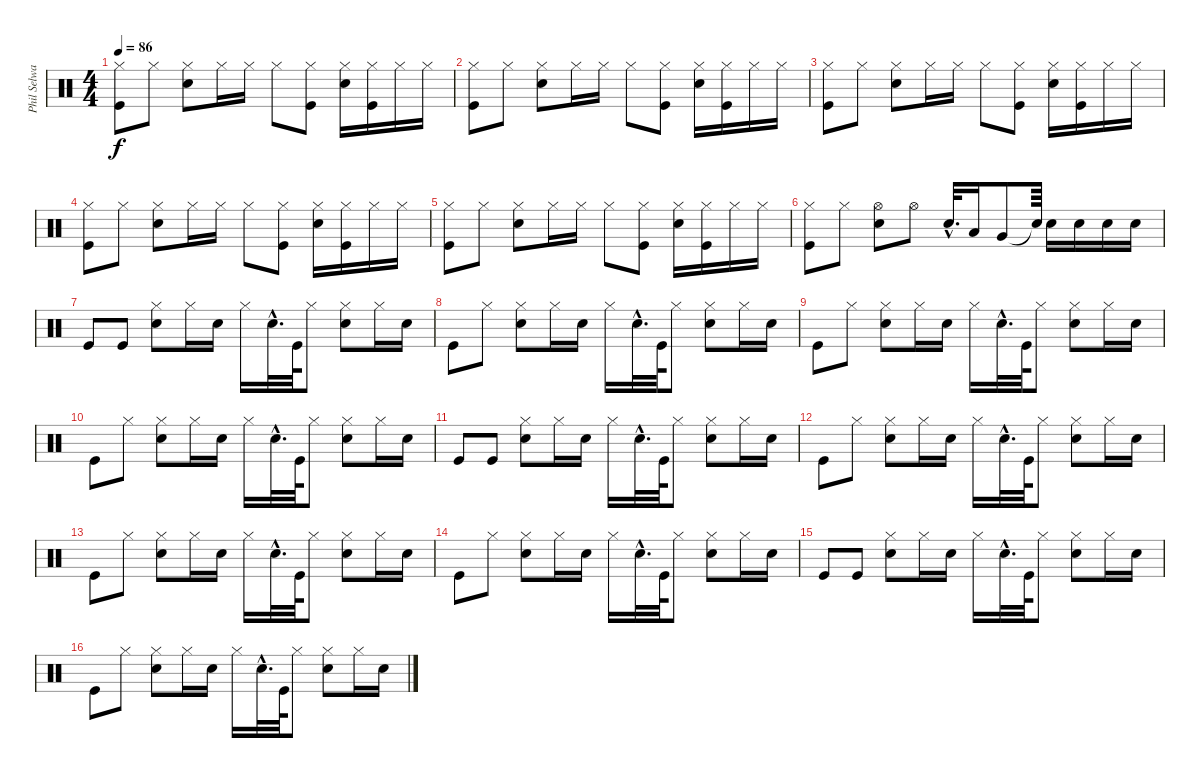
\track ("Phil Selway" "Phil Selwa") {instrument percussion}
\staff {score}
\articulation defaults
\ts (4 4)
\tempo 86
\clef neutral
\ks c
("Kick (hit)" "Hi-Hat (closed)").8{dy f} "Hi-Hat (closed)".8 ("Hi-Hat (closed)" "Electric Snare (hit)").8 "Hi-Hat (closed)".16 "Hi-Hat (closed)".16 "Hi-Hat (closed)".8 ("Kick (hit)" "Hi-Hat (closed)").8 ("Hi-Hat (closed)" "Electric Snare (hit)").16 ("Kick (hit)" "Hi-Hat (closed)").16 "Hi-Hat (closed)".16 "Hi-Hat (closed)".16 |
("Kick (hit)" "Hi-Hat (closed)").8 "Hi-Hat (closed)".8 ("Hi-Hat (closed)" "Electric Snare (hit)").8 "Hi-Hat (closed)".16 "Hi-Hat (closed)".16 "Hi-Hat (closed)".8 ("Kick (hit)" "Hi-Hat (closed)").8 ("Hi-Hat (closed)" "Electric Snare (hit)").16 ("Kick (hit)" "Hi-Hat (closed)").16 "Hi-Hat (closed)".16 "Hi-Hat (closed)".16 |
("Kick (hit)" "Hi-Hat (closed)").8 "Hi-Hat (closed)".8 ("Hi-Hat (closed)" "Electric Snare (hit)").8 "Hi-Hat (closed)".16 "Hi-Hat (closed)".16 "Hi-Hat (closed)".8 ("Kick (hit)" "Hi-Hat (closed)").8 ("Hi-Hat (closed)" "Electric Snare (hit)").16 ("Kick (hit)" "Hi-Hat (closed)").16 "Hi-Hat (closed)".16 "Hi-Hat (closed)".16 |
("Kick (hit)" "Hi-Hat (closed)").8 "Hi-Hat (closed)".8 ("Hi-Hat (closed)" "Electric Snare (hit)").8 "Hi-Hat (closed)".16 "Hi-Hat (closed)".16 "Hi-Hat (closed)".8 ("Kick (hit)" "Hi-Hat (closed)").8 ("Hi-Hat (closed)" "Electric Snare (hit)").16 ("Kick (hit)" "Hi-Hat (closed)").16 "Hi-Hat (closed)".16 "Hi-Hat (closed)".16 |
("Kick (hit)" "Hi-Hat (closed)").8 "Hi-Hat (closed)".8 ("Hi-Hat (closed)" "Electric Snare (hit)").8 "Hi-Hat (closed)".16 "Hi-Hat (closed)".16 "Hi-Hat (closed)".8 ("Kick (hit)" "Hi-Hat (closed)").8 ("Hi-Hat (closed)" "Electric Snare (hit)").16 ("Kick (hit)" "Hi-Hat (closed)").16 "Hi-Hat (closed)".16 "Hi-Hat (closed)".16 |
("Kick (hit)" "Hi-Hat (closed)").8 "Hi-Hat (closed)".8 ("Hi-Hat (open)" "Electric Snare (hit)").8 "Hi-Hat (open)".8 "Electric Snare (hit)"{hac}.32{d} "Low Tom (hit)".16 "Very Low Tom (hit)".8 "Snare (hit)"{t}.64 "Electric Snare (hit)".16 "Electric Snare (hit)".16 "Electric Snare (hit)".16 "Electric Snare (hit)".16 |
"Kick (hit)".8 "Kick (hit)".8 ("Hi-Hat (closed)" "Electric Snare (hit)").8 "Hi-Hat (closed)".16 "Electric Snare (hit)".16 "Hi-Hat (closed)".16 "Electric Snare (hit)"{hac}.32{d} "Kick (hit)".64 "Hi-Hat (closed)".8 ("Hi-Hat (closed)" "Electric Snare (hit)").8 "Hi-Hat (closed)".16 "Electric Snare (hit)".16 |
"Kick (hit)".8 "Hi-Hat (closed)".8 ("Hi-Hat (closed)" "Electric Snare (hit)").8 "Hi-Hat (closed)".16 "Electric Snare (hit)".16 "Hi-Hat (closed)".16 "Electric Snare (hit)"{hac}.32{d} "Kick (hit)".64 "Hi-Hat (closed)".8 ("Hi-Hat (closed)" "Electric Snare (hit)").8 "Hi-Hat (closed)".16 "Electric Snare (hit)".16 |
"Kick (hit)".8 "Hi-Hat (closed)".8 ("Hi-Hat (closed)" "Electric Snare (hit)").8 "Hi-Hat (closed)".16 "Electric Snare (hit)".16 "Hi-Hat (closed)".16 "Electric Snare (hit)"{hac}.32{d} "Kick (hit)".64 "Hi-Hat (closed)".8 ("Hi-Hat (closed)" "Electric Snare (hit)").8 "Hi-Hat (closed)".16 "Electric Snare (hit)".16 |
"Kick (hit)".8 "Hi-Hat (closed)".8 ("Hi-Hat (closed)" "Electric Snare (hit)").8 "Hi-Hat (closed)".16 "Electric Snare (hit)".16 "Hi-Hat (closed)".16 "Electric Snare (hit)"{hac}.32{d} "Kick (hit)".64 "Hi-Hat (closed)".8 ("Hi-Hat (closed)" "Electric Snare (hit)").8 "Hi-Hat (closed)".16 "Electric Snare (hit)".16 |
"Kick (hit)".8 "Kick (hit)".8 ("Hi-Hat (closed)" "Electric Snare (hit)").8 "Hi-Hat (closed)".16 "Electric Snare (hit)".16 "Hi-Hat (closed)".16 "Electric Snare (hit)"{hac}.32{d} "Kick (hit)".64 "Hi-Hat (closed)".8 ("Hi-Hat (closed)" "Electric Snare (hit)").8 "Hi-Hat (closed)".16 "Electric Snare (hit)".16 |
"Kick (hit)".8 "Hi-Hat (closed)".8 ("Hi-Hat (closed)" "Electric Snare (hit)").8 "Hi-Hat (closed)".16 "Electric Snare (hit)".16 "Hi-Hat (closed)".16 "Electric Snare (hit)"{hac}.32{d} "Kick (hit)".64 "Hi-Hat (closed)".8 ("Hi-Hat (closed)" "Electric Snare (hit)").8 "Hi-Hat (closed)".16 "Electric Snare (hit)".16 |
"Kick (hit)".8 "Hi-Hat (closed)".8 ("Hi-Hat (closed)" "Electric Snare (hit)").8 "Hi-Hat (closed)".16 "Electric Snare (hit)".16 "Hi-Hat (closed)".16 "Electric Snare (hit)"{hac}.32{d} "Kick (hit)".64 "Hi-Hat (closed)".8 ("Hi-Hat (closed)" "Electric Snare (hit)").8 "Hi-Hat (closed)".16 "Electric Snare (hit)".16 |
"Kick (hit)".8 "Hi-Hat (closed)".8 ("Hi-Hat (closed)" "Electric Snare (hit)").8 "Hi-Hat (closed)".16 "Electric Snare (hit)".16 "Hi-Hat (closed)".16 "Electric Snare (hit)"{hac}.32{d} "Kick (hit)".64 "Hi-Hat (closed)".8 ("Hi-Hat (closed)" "Electric Snare (hit)").8 "Hi-Hat (closed)".16 "Electric Snare (hit)".16 |
"Kick (hit)".8 "Kick (hit)".8 ("Hi-Hat (closed)" "Electric Snare (hit)").8 "Hi-Hat (closed)".16 "Electric Snare (hit)".16 "Hi-Hat (closed)".16 "Electric Snare (hit)"{hac}.32{d} "Kick (hit)".64 "Hi-Hat (closed)".8 ("Hi-Hat (closed)" "Electric Snare (hit)").8 "Hi-Hat (closed)".16 "Electric Snare (hit)".16 |
"Kick (hit)".8 "Hi-Hat (closed)".8 ("Hi-Hat (closed)" "Electric Snare (hit)").8 "Hi-Hat (closed)".16 "Electric Snare (hit)".16 "Hi-Hat (closed)".16 "Electric Snare (hit)"{hac}.32{d} "Kick (hit)".64 "Hi-Hat (closed)".8 ("Hi-Hat (closed)" "Electric Snare (hit)").8 "Hi-Hat (closed)".16 "Electric Snare (hit)".16
